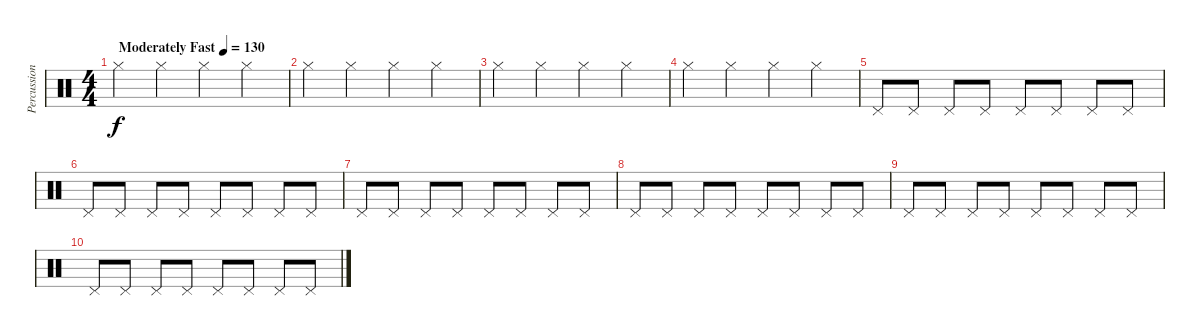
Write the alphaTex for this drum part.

\track ("Percussion" "Percussion") {instrument percussion}
\staff {score}
\articulation defaults
\ts (4 4)
\tempo (130 "Moderately Fast")
\clef neutral
\ks c "Hi-Hat (closed)".4{dy f} "Hi-Hat (closed)".4 "Hi-Hat (closed)".4 "Hi-Hat (closed)".4
|
"Hi-Hat (closed)".4 "Hi-Hat (closed)".4 "Hi-Hat (closed)".4 "Hi-Hat (closed)".4 |
"Hi-Hat (closed)".4 "Hi-Hat (closed)".4 "Hi-Hat (closed)".4 "Hi-Hat (closed)".4 |
"Hi-Hat (closed)".4 "Hi-Hat (closed)".4 "Hi-Hat (closed)".4 "Hi-Hat (closed)".4 |
"Pedal Hi-Hat (hit)".8 "Pedal Hi-Hat (hit)".8 "Pedal Hi-Hat (hit)".8 "Pedal Hi-Hat (hit)".8 "Pedal Hi-Hat (hit)".8 "Pedal Hi-Hat (hit)".8 "Pedal Hi-Hat (hit)".8 "Pedal Hi-Hat (hit)".8 |
"Pedal Hi-Hat (hit)".8 "Pedal Hi-Hat (hit)".8 "Pedal Hi-Hat (hit)".8 "Pedal Hi-Hat (hit)".8 "Pedal Hi-Hat (hit)".8 "Pedal Hi-Hat (hit)".8 "Pedal Hi-Hat (hit)".8 "Pedal Hi-Hat (hit)".8 |
"Pedal Hi-Hat (hit)".8 "Pedal Hi-Hat (hit)".8 "Pedal Hi-Hat (hit)".8 "Pedal Hi-Hat (hit)".8 "Pedal Hi-Hat (hit)".8 "Pedal Hi-Hat (hit)".8 "Pedal Hi-Hat (hit)".8 "Pedal Hi-Hat (hit)".8 |
"Pedal Hi-Hat (hit)".8 "Pedal Hi-Hat (hit)".8 "Pedal Hi-Hat (hit)".8 "Pedal Hi-Hat (hit)".8 "Pedal Hi-Hat (hit)".8 "Pedal Hi-Hat (hit)".8 "Pedal Hi-Hat (hit)".8 "Pedal Hi-Hat (hit)".8 |
"Pedal Hi-Hat (hit)".8 "Pedal Hi-Hat (hit)".8 "Pedal Hi-Hat (hit)".8 "Pedal Hi-Hat (hit)".8 "Pedal Hi-Hat (hit)".8 "Pedal Hi-Hat (hit)".8 "Pedal Hi-Hat (hit)".8 "Pedal Hi-Hat (hit)".8 |
"Pedal Hi-Hat (hit)".8 "Pedal Hi-Hat (hit)".8 "Pedal Hi-Hat (hit)".8 "Pedal Hi-Hat (hit)".8 "Pedal Hi-Hat (hit)".8 "Pedal Hi-Hat (hit)".8 "Pedal Hi-Hat (hit)".8 "Pedal Hi-Hat (hit)".8
